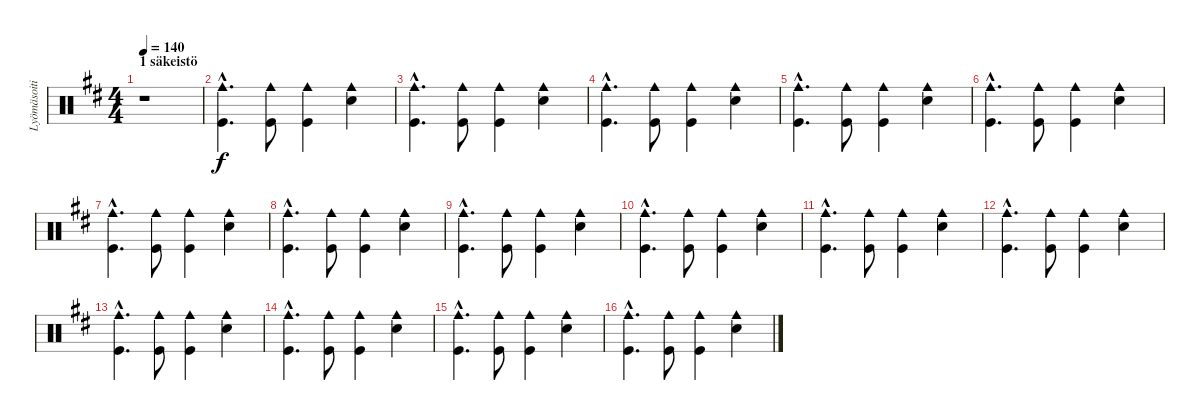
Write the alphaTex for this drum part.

\track ("Lyömäsoitin" "Lyömäsoiti") {instrument percussion}
\staff {score}
\articulation defaults
\ts (4 4)
\section ("" "1 säkeistö")
\tempo 140
\clef neutral
\ks d
r.1{dy f} |
("Cowbell medium (hit)"{hac} "Kick (hit)"{hac}).4{d} ("Cowbell medium (hit)" "Kick (hit)").8 ("Cowbell medium (hit)" "Kick (hit)").4 ("Cowbell medium (hit)" "Snare (hit) 2").4 |
("Cowbell medium (hit)"{hac} "Kick (hit)"{hac}).4{d} ("Cowbell medium (hit)" "Kick (hit)").8 ("Cowbell medium (hit)" "Kick (hit)").4 ("Cowbell medium (hit)" "Snare (hit) 2").4 |
("Cowbell medium (hit)"{hac} "Kick (hit)"{hac}).4{d} ("Cowbell medium (hit)" "Kick (hit)").8 ("Cowbell medium (hit)" "Kick (hit)").4 ("Cowbell medium (hit)" "Snare (hit) 2").4 |
("Cowbell medium (hit)"{hac} "Kick (hit)"{hac}).4{d} ("Cowbell medium (hit)" "Kick (hit)").8 ("Cowbell medium (hit)" "Kick (hit)").4 ("Cowbell medium (hit)" "Snare (hit) 2").4 |
("Cowbell medium (hit)"{hac} "Kick (hit)"{hac}).4{d} ("Cowbell medium (hit)" "Kick (hit)").8 ("Cowbell medium (hit)" "Kick (hit)").4 ("Cowbell medium (hit)" "Snare (hit) 2").4 |
("Cowbell medium (hit)"{hac} "Kick (hit)"{hac}).4{d} ("Cowbell medium (hit)" "Kick (hit)").8 ("Cowbell medium (hit)" "Kick (hit)").4 ("Cowbell medium (hit)" "Snare (hit) 2").4 |
("Cowbell medium (hit)"{hac} "Kick (hit)"{hac}).4{d} ("Cowbell medium (hit)" "Kick (hit)").8 ("Cowbell medium (hit)" "Kick (hit)").4 ("Cowbell medium (hit)" "Snare (hit) 2").4 |
("Cowbell medium (hit)"{hac} "Kick (hit)"{hac}).4{d} ("Cowbell medium (hit)" "Kick (hit)").8 ("Cowbell medium (hit)" "Kick (hit)").4 ("Cowbell medium (hit)" "Snare (hit) 2").4 |
("Cowbell medium (hit)"{hac} "Kick (hit)"{hac}).4{d} ("Cowbell medium (hit)" "Kick (hit)").8 ("Cowbell medium (hit)" "Kick (hit)").4 ("Cowbell medium (hit)" "Snare (hit) 2").4 |
("Cowbell medium (hit)"{hac} "Kick (hit)"{hac}).4{d} ("Cowbell medium (hit)" "Kick (hit)").8 ("Cowbell medium (hit)" "Kick (hit)").4 ("Cowbell medium (hit)" "Snare (hit) 2").4 |
("Cowbell medium (hit)"{hac} "Kick (hit)"{hac}).4{d} ("Cowbell medium (hit)" "Kick (hit)").8 ("Cowbell medium (hit)" "Kick (hit)").4 ("Cowbell medium (hit)" "Snare (hit) 2").4 |
("Cowbell medium (hit)"{hac} "Kick (hit)"{hac}).4{d} ("Cowbell medium (hit)" "Kick (hit)").8 ("Cowbell medium (hit)" "Kick (hit)").4 ("Cowbell medium (hit)" "Snare (hit) 2").4 |
("Cowbell medium (hit)"{hac} "Kick (hit)"{hac}).4{d} ("Cowbell medium (hit)" "Kick (hit)").8 ("Cowbell medium (hit)" "Kick (hit)").4 ("Cowbell medium (hit)" "Snare (hit) 2").4 |
("Cowbell medium (hit)"{hac} "Kick (hit)"{hac}).4{d} ("Cowbell medium (hit)" "Kick (hit)").8 ("Cowbell medium (hit)" "Kick (hit)").4 ("Cowbell medium (hit)" "Snare (hit) 2").4 |
("Cowbell medium (hit)"{hac} "Kick (hit)"{hac}).4{d} ("Cowbell medium (hit)" "Kick (hit)").8 ("Cowbell medium (hit)" "Kick (hit)").4 ("Cowbell medium (hit)" "Snare (hit) 2").4
